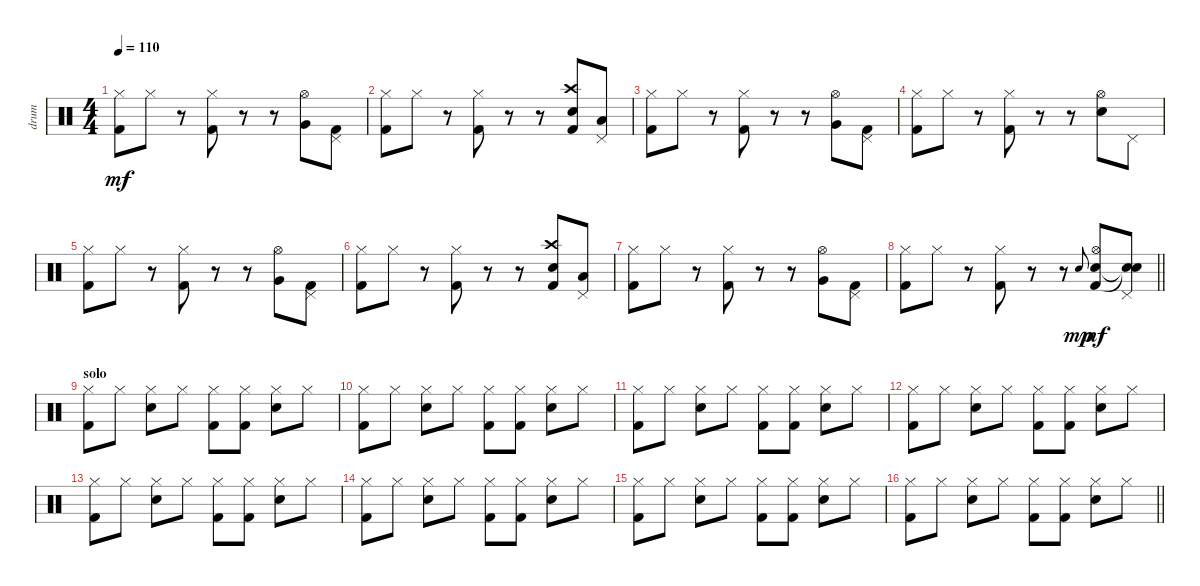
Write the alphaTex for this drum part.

\track ("drum" "drum") {instrument percussion}
\staff
\articulation defaults
\ts (4 4)
\tempo 110
\clef neutral
\ks c
("Hi-Hat (closed)" "Kick (hit) 2").8{dy mf} "Hi-Hat (closed)".8 r.8 ("Hi-Hat (closed)" "Kick (hit) 2").8 r.8 r.8 ("Hi-Hat (open)" "Very Low Tom (hit)").8 ("Pedal Hi-Hat (hit)" "Kick (hit) 2").8 |
("Hi-Hat (closed)" "Kick (hit) 2").8 "Hi-Hat (closed)".8 r.8 ("Hi-Hat (closed)" "Kick (hit) 2").8 r.8 r.8 ("Crash high (hit)" "Electric Snare (hit)" "Kick (hit) 2").8 ("Pedal Hi-Hat (hit)" "Low Floor Tom (hit)").8 |
("Hi-Hat (closed)" "Kick (hit) 2").8 "Hi-Hat (closed)".8 r.8 ("Hi-Hat (closed)" "Kick (hit) 2").8 r.8 r.8 ("Hi-Hat (open)" "Very Low Tom (hit)").8 ("Pedal Hi-Hat (hit)" "Kick (hit) 2").8 |
("Hi-Hat (closed)" "Kick (hit) 2").8 "Hi-Hat (closed)".8 r.8 ("Hi-Hat (closed)" "Kick (hit) 2").8 r.8 r.8 ("Hi-Hat (open)" "Electric Snare (hit)").8 "Pedal Hi-Hat (hit)".8 |
("Hi-Hat (closed)" "Kick (hit) 2").8 "Hi-Hat (closed)".8 r.8 ("Hi-Hat (closed)" "Kick (hit) 2").8 r.8 r.8 ("Hi-Hat (open)" "Very Low Tom (hit)").8 ("Pedal Hi-Hat (hit)" "Kick (hit) 2").8 |
("Hi-Hat (closed)" "Kick (hit) 2").8 "Hi-Hat (closed)".8 r.8 ("Hi-Hat (closed)" "Kick (hit) 2").8 r.8 r.8 ("Crash high (hit)" "Electric Snare (hit)" "Kick (hit) 2").8 ("Pedal Hi-Hat (hit)" "Low Floor Tom (hit)").8 |
("Hi-Hat (closed)" "Kick (hit) 2").8 "Hi-Hat (closed)".8 r.8 ("Hi-Hat (closed)" "Kick (hit) 2").8 r.8 r.8 ("Hi-Hat (open)" "Very Low Tom (hit)").8 ("Pedal Hi-Hat (hit)" "Kick (hit) 2").8 |
\barLineRight lightlight
("Hi-Hat (closed)" "Kick (hit) 2").8 "Hi-Hat (closed)".8 r.8 ("Hi-Hat (closed)" "Kick (hit) 2").8 r.8 r.8 "Electric Snare (hit)".8{gr onbeat dy mp} ("Hi-Hat (open)" "Electric Snare (hit)" "Kick (hit) 2").8{dy mf} ("Pedal Hi-Hat (hit)" "Snare (hit)"{t} "Snare (hit)"{t}).8 |
\section ("" "solo")
("Hi-Hat (closed)" "Kick (hit) 2").8 "Hi-Hat (closed)".8 ("Hi-Hat (closed)" "Electric Snare (hit)").8 "Hi-Hat (closed)".8 ("Hi-Hat (closed)" "Kick (hit) 2").8 ("Hi-Hat (closed)" "Kick (hit) 2").8 ("Hi-Hat (closed)" "Electric Snare (hit)").8 "Hi-Hat (closed)".8 |
("Hi-Hat (closed)" "Kick (hit) 2").8 "Hi-Hat (closed)".8 ("Hi-Hat (closed)" "Electric Snare (hit)").8 "Hi-Hat (closed)".8 ("Hi-Hat (closed)" "Kick (hit) 2").8 ("Hi-Hat (closed)" "Kick (hit) 2").8 ("Hi-Hat (closed)" "Electric Snare (hit)").8 "Hi-Hat (closed)".8 |
("Hi-Hat (closed)" "Kick (hit) 2").8 "Hi-Hat (closed)".8 ("Hi-Hat (closed)" "Electric Snare (hit)").8 "Hi-Hat (closed)".8 ("Hi-Hat (closed)" "Kick (hit) 2").8 ("Hi-Hat (closed)" "Kick (hit) 2").8 ("Hi-Hat (closed)" "Electric Snare (hit)").8 "Hi-Hat (closed)".8 |
("Hi-Hat (closed)" "Kick (hit) 2").8 "Hi-Hat (closed)".8 ("Hi-Hat (closed)" "Electric Snare (hit)").8 "Hi-Hat (closed)".8 ("Hi-Hat (closed)" "Kick (hit) 2").8 ("Hi-Hat (closed)" "Kick (hit) 2").8 ("Hi-Hat (closed)" "Electric Snare (hit)").8 "Hi-Hat (closed)".8 |
("Hi-Hat (closed)" "Kick (hit) 2").8 "Hi-Hat (closed)".8 ("Hi-Hat (closed)" "Electric Snare (hit)").8 "Hi-Hat (closed)".8 ("Hi-Hat (closed)" "Kick (hit) 2").8 ("Hi-Hat (closed)" "Kick (hit) 2").8 ("Hi-Hat (closed)" "Electric Snare (hit)").8 "Hi-Hat (closed)".8 |
("Hi-Hat (closed)" "Kick (hit) 2").8 "Hi-Hat (closed)".8 ("Hi-Hat (closed)" "Electric Snare (hit)").8 "Hi-Hat (closed)".8 ("Hi-Hat (closed)" "Kick (hit) 2").8 ("Hi-Hat (closed)" "Kick (hit) 2").8 ("Hi-Hat (closed)" "Electric Snare (hit)").8 "Hi-Hat (closed)".8 |
("Hi-Hat (closed)" "Kick (hit) 2").8 "Hi-Hat (closed)".8 ("Hi-Hat (closed)" "Electric Snare (hit)").8 "Hi-Hat (closed)".8 ("Hi-Hat (closed)" "Kick (hit) 2").8 ("Hi-Hat (closed)" "Kick (hit) 2").8 ("Hi-Hat (closed)" "Electric Snare (hit)").8 "Hi-Hat (closed)".8 |
\barLineRight lightlight
("Hi-Hat (closed)" "Kick (hit) 2").8 "Hi-Hat (closed)".8 ("Hi-Hat (closed)" "Electric Snare (hit)").8 "Hi-Hat (closed)".8 ("Hi-Hat (closed)" "Kick (hit) 2").8 ("Hi-Hat (closed)" "Kick (hit) 2").8 ("Hi-Hat (closed)" "Electric Snare (hit)").8 "Hi-Hat (closed)".8
